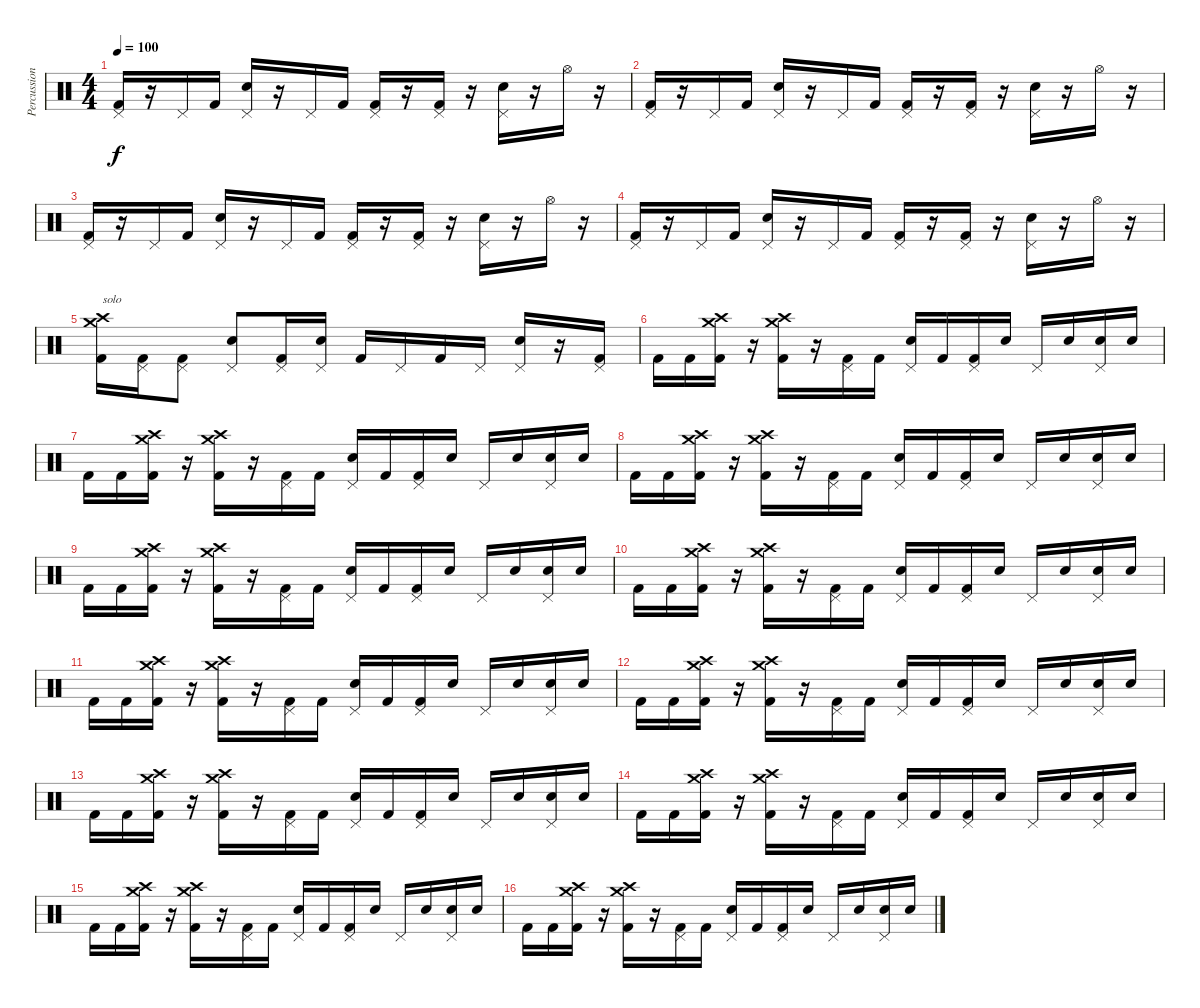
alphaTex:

\track ("Percussion" "Percussion") {instrument percussion}
\staff {score}
\articulation defaults
\ts (4 4)
\tempo 100
\clef neutral
\ks c
("Pedal Hi-Hat (hit)" "Kick (hit) 2").16{dy f} r.16 "Pedal Hi-Hat (hit)".16 "Kick (hit) 2".16 ("Pedal Hi-Hat (hit)" "Electric Snare (hit)").16 r.16 "Pedal Hi-Hat (hit)".16 "Kick (hit) 2".16 ("Pedal Hi-Hat (hit)" "Kick (hit) 2").16 r.16 ("Pedal Hi-Hat (hit)" "Kick (hit) 2").16 r.16 ("Pedal Hi-Hat (hit)" "Electric Snare (hit)").16 r.16 "Hi-Hat (open)".16 r.16 |
("Pedal Hi-Hat (hit)" "Kick (hit) 2").16 r.16 "Pedal Hi-Hat (hit)".16 "Kick (hit) 2".16 ("Pedal Hi-Hat (hit)" "Electric Snare (hit)").16 r.16 "Pedal Hi-Hat (hit)".16 "Kick (hit) 2".16 ("Pedal Hi-Hat (hit)" "Kick (hit) 2").16 r.16 ("Pedal Hi-Hat (hit)" "Kick (hit) 2").16 r.16 ("Pedal Hi-Hat (hit)" "Electric Snare (hit)").16 r.16 "Hi-Hat (open)".16 r.16 |
("Pedal Hi-Hat (hit)" "Kick (hit) 2").16 r.16 "Pedal Hi-Hat (hit)".16 "Kick (hit) 2".16 ("Pedal Hi-Hat (hit)" "Electric Snare (hit)").16 r.16 "Pedal Hi-Hat (hit)".16 "Kick (hit) 2".16 ("Pedal Hi-Hat (hit)" "Kick (hit) 2").16 r.16 ("Pedal Hi-Hat (hit)" "Kick (hit) 2").16 r.16 ("Pedal Hi-Hat (hit)" "Electric Snare (hit)").16 r.16 "Hi-Hat (open)".16 r.16 |
("Pedal Hi-Hat (hit)" "Kick (hit) 2").16 r.16 "Pedal Hi-Hat (hit)".16 "Kick (hit) 2".16 ("Pedal Hi-Hat (hit)" "Electric Snare (hit)").16 r.16 "Pedal Hi-Hat (hit)".16 "Kick (hit) 2".16 ("Pedal Hi-Hat (hit)" "Kick (hit) 2").16 r.16 ("Pedal Hi-Hat (hit)" "Kick (hit) 2").16 r.16 ("Pedal Hi-Hat (hit)" "Electric Snare (hit)").16 r.16 "Hi-Hat (open)".16 r.16 |
("Crash high (hit)" "Crash medium (hit)" "Kick (hit) 2").16{txt "solo"} ("Pedal Hi-Hat (hit)" "Kick (hit) 2").16 ("Pedal Hi-Hat (hit)" "Kick (hit) 2").8 ("Pedal Hi-Hat (hit)" "Electric Snare (hit)").8 ("Pedal Hi-Hat (hit)" "Kick (hit) 2").16 ("Pedal Hi-Hat (hit)" "Electric Snare (hit)").16 "Kick (hit) 2".16 "Pedal Hi-Hat (hit)".16 "Kick (hit) 2".16 "Pedal Hi-Hat (hit)".16 ("Pedal Hi-Hat (hit)" "Electric Snare (hit)").16 r.16 ("Pedal Hi-Hat (hit)" "Kick (hit) 2").16 |
"Kick (hit) 2".16 "Kick (hit) 2".16 ("Crash high (hit)" "Crash medium (hit)" "Kick (hit) 2").16 r.16 ("Crash high (hit)" "Crash medium (hit)" "Kick (hit) 2").16 r.16 ("Pedal Hi-Hat (hit)" "Kick (hit) 2").16 "Kick (hit) 2".16 ("Pedal Hi-Hat (hit)" "Electric Snare (hit)").16 "Kick (hit) 2".16 ("Pedal Hi-Hat (hit)" "Kick (hit) 2").16 "Electric Snare (hit)".16 "Pedal Hi-Hat (hit)".16 "Electric Snare (hit)".16 ("Pedal Hi-Hat (hit)" "Electric Snare (hit)").16 "Electric Snare (hit)".16 |
"Kick (hit) 2".16 "Kick (hit) 2".16 ("Crash high (hit)" "Crash medium (hit)" "Kick (hit) 2").16 r.16 ("Crash high (hit)" "Crash medium (hit)" "Kick (hit) 2").16 r.16 ("Pedal Hi-Hat (hit)" "Kick (hit) 2").16 "Kick (hit) 2".16 ("Pedal Hi-Hat (hit)" "Electric Snare (hit)").16 "Kick (hit) 2".16 ("Pedal Hi-Hat (hit)" "Kick (hit) 2").16 "Electric Snare (hit)".16 "Pedal Hi-Hat (hit)".16 "Electric Snare (hit)".16 ("Pedal Hi-Hat (hit)" "Electric Snare (hit)").16 "Electric Snare (hit)".16 |
"Kick (hit) 2".16 "Kick (hit) 2".16 ("Crash high (hit)" "Crash medium (hit)" "Kick (hit) 2").16 r.16 ("Crash high (hit)" "Crash medium (hit)" "Kick (hit) 2").16 r.16 ("Pedal Hi-Hat (hit)" "Kick (hit) 2").16 "Kick (hit) 2".16 ("Pedal Hi-Hat (hit)" "Electric Snare (hit)").16 "Kick (hit) 2".16 ("Pedal Hi-Hat (hit)" "Kick (hit) 2").16 "Electric Snare (hit)".16 "Pedal Hi-Hat (hit)".16 "Electric Snare (hit)".16 ("Pedal Hi-Hat (hit)" "Electric Snare (hit)").16 "Electric Snare (hit)".16 |
"Kick (hit) 2".16 "Kick (hit) 2".16 ("Crash high (hit)" "Crash medium (hit)" "Kick (hit) 2").16 r.16 ("Crash high (hit)" "Crash medium (hit)" "Kick (hit) 2").16 r.16 ("Pedal Hi-Hat (hit)" "Kick (hit) 2").16 "Kick (hit) 2".16 ("Pedal Hi-Hat (hit)" "Electric Snare (hit)").16 "Kick (hit) 2".16 ("Pedal Hi-Hat (hit)" "Kick (hit) 2").16 "Electric Snare (hit)".16 "Pedal Hi-Hat (hit)".16 "Electric Snare (hit)".16 ("Pedal Hi-Hat (hit)" "Electric Snare (hit)").16 "Electric Snare (hit)".16 |
"Kick (hit) 2".16 "Kick (hit) 2".16 ("Crash high (hit)" "Crash medium (hit)" "Kick (hit) 2").16 r.16 ("Crash high (hit)" "Crash medium (hit)" "Kick (hit) 2").16 r.16 ("Pedal Hi-Hat (hit)" "Kick (hit) 2").16 "Kick (hit) 2".16 ("Pedal Hi-Hat (hit)" "Electric Snare (hit)").16 "Kick (hit) 2".16 ("Pedal Hi-Hat (hit)" "Kick (hit) 2").16 "Electric Snare (hit)".16 "Pedal Hi-Hat (hit)".16 "Electric Snare (hit)".16 ("Pedal Hi-Hat (hit)" "Electric Snare (hit)").16 "Electric Snare (hit)".16 |
"Kick (hit) 2".16 "Kick (hit) 2".16 ("Crash high (hit)" "Crash medium (hit)" "Kick (hit) 2").16 r.16 ("Crash high (hit)" "Crash medium (hit)" "Kick (hit) 2").16 r.16 ("Pedal Hi-Hat (hit)" "Kick (hit) 2").16 "Kick (hit) 2".16 ("Pedal Hi-Hat (hit)" "Electric Snare (hit)").16 "Kick (hit) 2".16 ("Pedal Hi-Hat (hit)" "Kick (hit) 2").16 "Electric Snare (hit)".16 "Pedal Hi-Hat (hit)".16 "Electric Snare (hit)".16 ("Pedal Hi-Hat (hit)" "Electric Snare (hit)").16 "Electric Snare (hit)".16 |
"Kick (hit) 2".16 "Kick (hit) 2".16 ("Crash high (hit)" "Crash medium (hit)" "Kick (hit) 2").16 r.16 ("Crash high (hit)" "Crash medium (hit)" "Kick (hit) 2").16 r.16 ("Pedal Hi-Hat (hit)" "Kick (hit) 2").16 "Kick (hit) 2".16 ("Pedal Hi-Hat (hit)" "Electric Snare (hit)").16 "Kick (hit) 2".16 ("Pedal Hi-Hat (hit)" "Kick (hit) 2").16 "Electric Snare (hit)".16 "Pedal Hi-Hat (hit)".16 "Electric Snare (hit)".16 ("Pedal Hi-Hat (hit)" "Electric Snare (hit)").16 "Electric Snare (hit)".16 |
"Kick (hit) 2".16 "Kick (hit) 2".16 ("Crash high (hit)" "Crash medium (hit)" "Kick (hit) 2").16 r.16 ("Crash high (hit)" "Crash medium (hit)" "Kick (hit) 2").16 r.16 ("Pedal Hi-Hat (hit)" "Kick (hit) 2").16 "Kick (hit) 2".16 ("Pedal Hi-Hat (hit)" "Electric Snare (hit)").16 "Kick (hit) 2".16 ("Pedal Hi-Hat (hit)" "Kick (hit) 2").16 "Electric Snare (hit)".16 "Pedal Hi-Hat (hit)".16 "Electric Snare (hit)".16 ("Pedal Hi-Hat (hit)" "Electric Snare (hit)").16 "Electric Snare (hit)".16 |
"Kick (hit) 2".16 "Kick (hit) 2".16 ("Crash high (hit)" "Crash medium (hit)" "Kick (hit) 2").16 r.16 ("Crash high (hit)" "Crash medium (hit)" "Kick (hit) 2").16 r.16 ("Pedal Hi-Hat (hit)" "Kick (hit) 2").16 "Kick (hit) 2".16 ("Pedal Hi-Hat (hit)" "Electric Snare (hit)").16 "Kick (hit) 2".16 ("Pedal Hi-Hat (hit)" "Kick (hit) 2").16 "Electric Snare (hit)".16 "Pedal Hi-Hat (hit)".16 "Electric Snare (hit)".16 ("Pedal Hi-Hat (hit)" "Electric Snare (hit)").16 "Electric Snare (hit)".16 |
"Kick (hit) 2".16 "Kick (hit) 2".16 ("Crash high (hit)" "Crash medium (hit)" "Kick (hit) 2").16 r.16 ("Crash high (hit)" "Crash medium (hit)" "Kick (hit) 2").16 r.16 ("Pedal Hi-Hat (hit)" "Kick (hit) 2").16 "Kick (hit) 2".16 ("Pedal Hi-Hat (hit)" "Electric Snare (hit)").16 "Kick (hit) 2".16 ("Pedal Hi-Hat (hit)" "Kick (hit) 2").16 "Electric Snare (hit)".16 "Pedal Hi-Hat (hit)".16 "Electric Snare (hit)".16 ("Pedal Hi-Hat (hit)" "Electric Snare (hit)").16 "Electric Snare (hit)".16 |
"Kick (hit) 2".16 "Kick (hit) 2".16 ("Crash high (hit)" "Crash medium (hit)" "Kick (hit) 2").16 r.16 ("Crash high (hit)" "Crash medium (hit)" "Kick (hit) 2").16 r.16 ("Pedal Hi-Hat (hit)" "Kick (hit) 2").16 "Kick (hit) 2".16 ("Pedal Hi-Hat (hit)" "Electric Snare (hit)").16 "Kick (hit) 2".16 ("Pedal Hi-Hat (hit)" "Kick (hit) 2").16 "Electric Snare (hit)".16 "Pedal Hi-Hat (hit)".16 "Electric Snare (hit)".16 ("Pedal Hi-Hat (hit)" "Electric Snare (hit)").16 "Electric Snare (hit)".16
